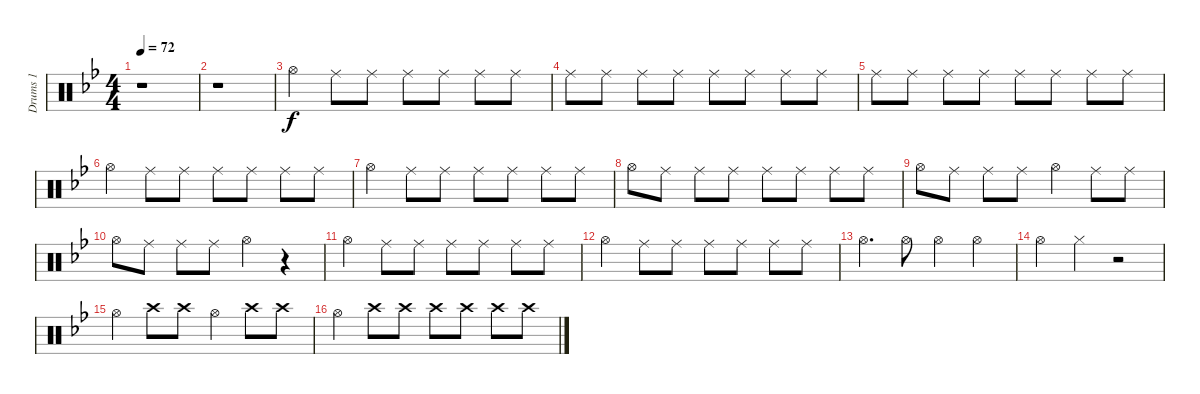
\track ("Drums 1" "Drums 1") {instrument percussion}
\staff {score}
\articulation defaults
\ts (4 4)
\tempo 72
\clef neutral
\ks bb
r.1{dy f} |
r.1 |
"Hi-Hat (open)".4 "Ride (middle)".8 "Ride (middle)".8 "Ride (middle)".8 "Ride (middle)".8 "Ride (middle)".8 "Ride (middle)".8 |
"Ride (middle)".8 "Ride (middle)".8 "Ride (middle)".8 "Ride (middle)".8 "Ride (middle)".8 "Ride (middle)".8 "Ride (middle)".8 "Ride (middle)".8 |
"Ride (middle)".8 "Ride (middle)".8 "Ride (middle)".8 "Ride (middle)".8 "Ride (middle)".8 "Ride (middle)".8 "Ride (middle)".8 "Ride (middle)".8 |
"Hi-Hat (open)".4 "Ride (middle)".8 "Ride (middle)".8 "Ride (middle)".8 "Ride (middle)".8 "Ride (middle)".8 "Ride (middle)".8 |
"Hi-Hat (open)".4 "Ride (middle)".8 "Ride (middle)".8 "Ride (middle)".8 "Ride (middle)".8 "Ride (middle)".8 "Ride (middle)".8 |
"Hi-Hat (open)".8 "Ride (middle)".8 "Ride (middle)".8 "Ride (middle)".8 "Ride (middle)".8 "Ride (middle)".8 "Ride (middle)".8 "Ride (middle)".8 |
"Hi-Hat (open)".8 "Ride (middle)".8 "Ride (middle)".8 "Ride (middle)".8 "Hi-Hat (open)".4 "Ride (middle)".8 "Ride (middle)".8 |
"Hi-Hat (open)".8 "Ride (middle)".8 "Ride (middle)".8 "Ride (middle)".8 "Hi-Hat (open)".4 r.4 |
"Hi-Hat (open)".4 "Ride (middle)".8 "Ride (middle)".8 "Ride (middle)".8 "Ride (middle)".8 "Ride (middle)".8 "Ride (middle)".8 |
"Hi-Hat (open)".4 "Ride (middle)".8 "Ride (middle)".8 "Ride (middle)".8 "Ride (middle)".8 "Ride (middle)".8 "Ride (middle)".8 |
"Hi-Hat (open)".4{d} "Hi-Hat (open)".8 "Hi-Hat (open)".4 "Hi-Hat (open)".4 |
"Hi-Hat (open)".4 "Hi-Hat (closed)".4 r.2 |
"Hi-Hat (open)".4 "Crash high (hit)".8 "Crash high (hit)".8 "Hi-Hat (open)".4 "Crash high (hit)".8 "Crash high (hit)".8 |
"Hi-Hat (open)".4 "Crash high (hit)".8 "Crash high (hit)".8 "Crash high (hit)".8 "Crash high (hit)".8 "Crash high (hit)".8 "Crash high (hit)".8
